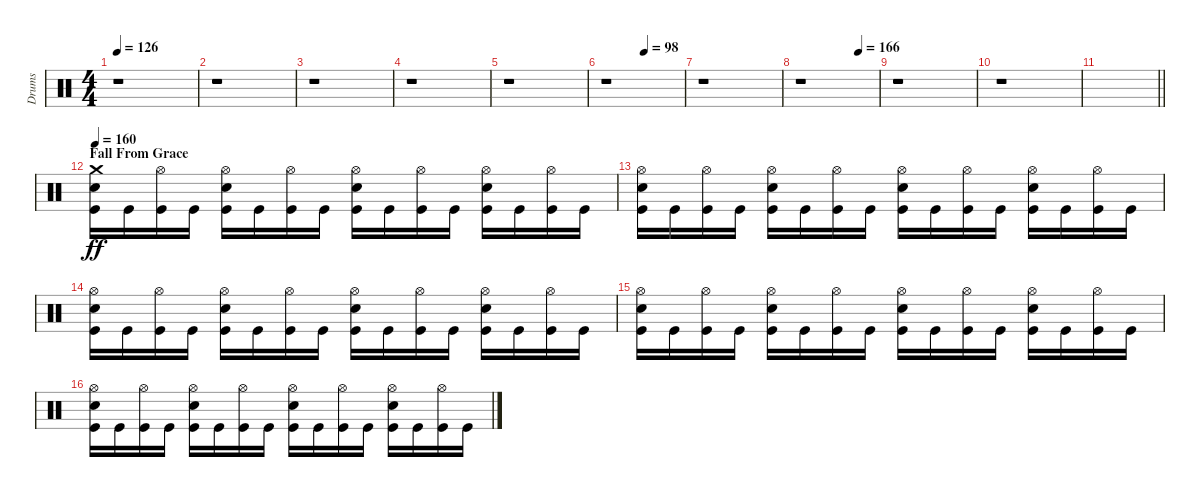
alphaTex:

\track ("Drums" "Drums") {instrument percussion bank 127}
\staff {score}
\articulation defaults
\ts (4 4)
\tempo 126
\clef neutral
\ks c
r.1{dy mf} |
r.1 |
r.1 |
r.1 |
r.1 |
\tempo (98 0.5)
r.1 |
r.1 |
\tempo (166 0.75)
r.1 |
r.1 |
r.1 |
\barLineRight lightlight
|
\section ("" "Fall From Grace")
\tempo 160
("Crash medium (hit)" "Snare (hit) 2" "Kick (hit)").16{dy ff} "Kick (hit)".16 ("Hi-Hat (open)" "Kick (hit)").16 "Kick (hit)".16 ("Hi-Hat (open)" "Snare (hit) 2" "Kick (hit)").16 "Kick (hit)".16 ("Hi-Hat (open)" "Kick (hit)").16 "Kick (hit)".16 ("Hi-Hat (open)" "Snare (hit) 2" "Kick (hit)").16 "Kick (hit)".16 ("Hi-Hat (open)" "Kick (hit)").16 "Kick (hit)".16 ("Hi-Hat (open)" "Snare (hit) 2" "Kick (hit)").16 "Kick (hit)".16 ("Hi-Hat (open)" "Kick (hit)").16 "Kick (hit)".16 |
("Hi-Hat (open)" "Snare (hit) 2" "Kick (hit)").16 "Kick (hit)".16 ("Hi-Hat (open)" "Kick (hit)").16 "Kick (hit)".16 ("Hi-Hat (open)" "Snare (hit) 2" "Kick (hit)").16 "Kick (hit)".16 ("Hi-Hat (open)" "Kick (hit)").16 "Kick (hit)".16 ("Hi-Hat (open)" "Snare (hit) 2" "Kick (hit)").16 "Kick (hit)".16 ("Hi-Hat (open)" "Kick (hit)").16 "Kick (hit)".16 ("Hi-Hat (open)" "Snare (hit) 2" "Kick (hit)").16 "Kick (hit)".16 ("Hi-Hat (open)" "Kick (hit)").16 "Kick (hit)".16 |
("Hi-Hat (open)" "Snare (hit) 2" "Kick (hit)").16 "Kick (hit)".16 ("Hi-Hat (open)" "Kick (hit)").16 "Kick (hit)".16 ("Hi-Hat (open)" "Snare (hit) 2" "Kick (hit)").16 "Kick (hit)".16 ("Hi-Hat (open)" "Kick (hit)").16 "Kick (hit)".16 ("Hi-Hat (open)" "Snare (hit) 2" "Kick (hit)").16 "Kick (hit)".16 ("Hi-Hat (open)" "Kick (hit)").16 "Kick (hit)".16 ("Hi-Hat (open)" "Snare (hit) 2" "Kick (hit)").16 "Kick (hit)".16 ("Hi-Hat (open)" "Kick (hit)").16 "Kick (hit)".16 |
("Hi-Hat (open)" "Snare (hit) 2" "Kick (hit)").16 "Kick (hit)".16 ("Hi-Hat (open)" "Kick (hit)").16 "Kick (hit)".16 ("Hi-Hat (open)" "Snare (hit) 2" "Kick (hit)").16 "Kick (hit)".16 ("Hi-Hat (open)" "Kick (hit)").16 "Kick (hit)".16 ("Hi-Hat (open)" "Snare (hit) 2" "Kick (hit)").16 "Kick (hit)".16 ("Hi-Hat (open)" "Kick (hit)").16 "Kick (hit)".16 ("Hi-Hat (open)" "Snare (hit) 2" "Kick (hit)").16 "Kick (hit)".16 ("Hi-Hat (open)" "Kick (hit)").16 "Kick (hit)".16 |
("Hi-Hat (open)" "Snare (hit) 2" "Kick (hit)").16 "Kick (hit)".16 ("Hi-Hat (open)" "Kick (hit)").16 "Kick (hit)".16 ("Hi-Hat (open)" "Snare (hit) 2" "Kick (hit)").16 "Kick (hit)".16 ("Hi-Hat (open)" "Kick (hit)").16 "Kick (hit)".16 ("Hi-Hat (open)" "Snare (hit) 2" "Kick (hit)").16 "Kick (hit)".16 ("Hi-Hat (open)" "Kick (hit)").16 "Kick (hit)".16 ("Hi-Hat (open)" "Snare (hit) 2" "Kick (hit)").16 "Kick (hit)".16 ("Hi-Hat (open)" "Kick (hit)").16 "Kick (hit)".16
